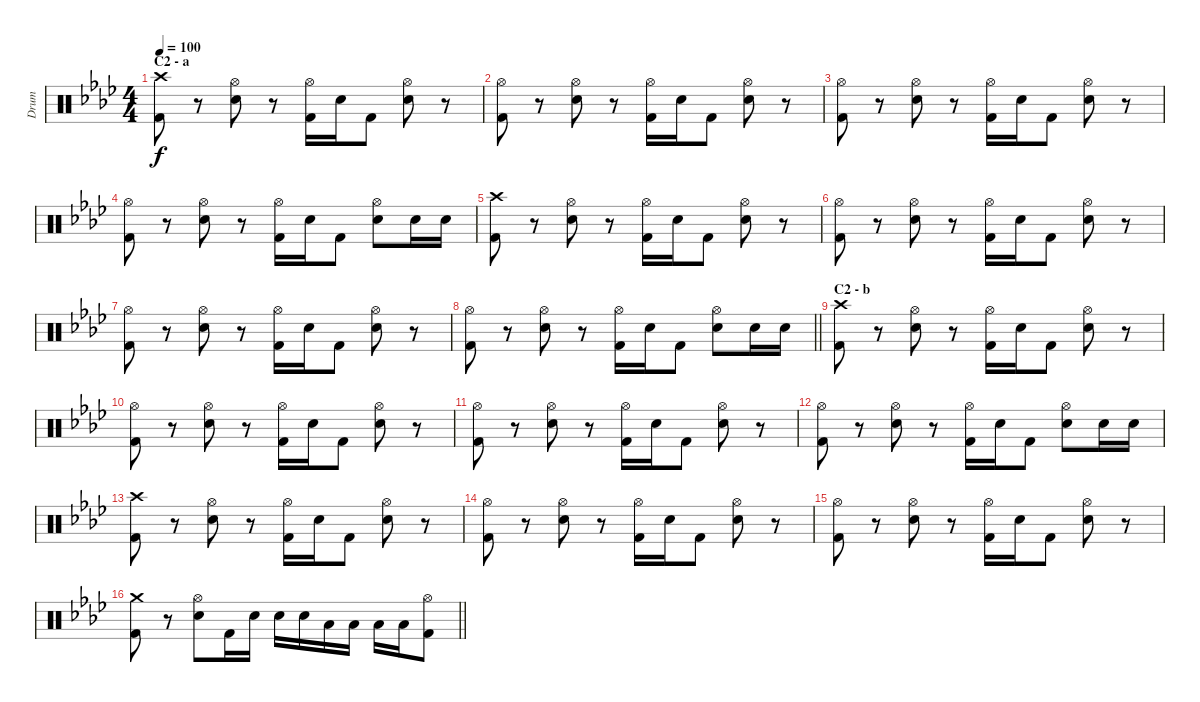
\track ("Drum" "Drum") {instrument percussion}
\staff {score}
\articulation defaults
\ts (4 4)
\section ("" "C2 - a")
\tempo 100
\clef neutral
\ks ab
("Crash high (hit)" "Kick (hit) 2").8{dy f} r.8 ("Hi-Hat (open)" "Snare (hit) 2").8 r.8 ("Hi-Hat (open)" "Kick (hit) 2").16 "Snare (hit) 2".16 "Kick (hit) 2".8 ("Hi-Hat (open)" "Snare (hit) 2").8 r.8 |
("Hi-Hat (open)" "Kick (hit) 2").8 r.8 ("Hi-Hat (open)" "Snare (hit) 2").8 r.8 ("Hi-Hat (open)" "Kick (hit) 2").16 "Snare (hit) 2".16 "Kick (hit) 2".8 ("Hi-Hat (open)" "Snare (hit) 2").8 r.8 |
("Hi-Hat (open)" "Kick (hit) 2").8 r.8 ("Hi-Hat (open)" "Snare (hit) 2").8 r.8 ("Hi-Hat (open)" "Kick (hit) 2").16 "Snare (hit) 2".16 "Kick (hit) 2".8 ("Hi-Hat (open)" "Snare (hit) 2").8 r.8 |
("Hi-Hat (open)" "Kick (hit) 2").8 r.8 ("Hi-Hat (open)" "Snare (hit) 2").8 r.8 ("Hi-Hat (open)" "Kick (hit) 2").16 "Snare (hit) 2".16 "Kick (hit) 2".8 ("Hi-Hat (open)" "Snare (hit) 2").8 "Snare (hit) 2".16 "Snare (hit) 2".16 |
("Crash high (hit)" "Kick (hit) 2").8 r.8 ("Hi-Hat (open)" "Snare (hit) 2").8 r.8 ("Hi-Hat (open)" "Kick (hit) 2").16 "Snare (hit) 2".16 "Kick (hit) 2".8 ("Hi-Hat (open)" "Snare (hit) 2").8 r.8 |
("Hi-Hat (open)" "Kick (hit) 2").8 r.8 ("Hi-Hat (open)" "Snare (hit) 2").8 r.8 ("Hi-Hat (open)" "Kick (hit) 2").16 "Snare (hit) 2".16 "Kick (hit) 2".8 ("Hi-Hat (open)" "Snare (hit) 2").8 r.8 |
("Hi-Hat (open)" "Kick (hit) 2").8 r.8 ("Hi-Hat (open)" "Snare (hit) 2").8 r.8 ("Hi-Hat (open)" "Kick (hit) 2").16 "Snare (hit) 2".16 "Kick (hit) 2".8 ("Hi-Hat (open)" "Snare (hit) 2").8 r.8 |
\barLineRight lightlight
("Hi-Hat (open)" "Kick (hit) 2").8 r.8 ("Hi-Hat (open)" "Snare (hit) 2").8 r.8 ("Hi-Hat (open)" "Kick (hit) 2").16 "Snare (hit) 2".16 "Kick (hit) 2".8 ("Hi-Hat (open)" "Snare (hit) 2").8 "Snare (hit) 2".16 "Snare (hit) 2".16 |
\section ("" "C2 - b")
("Crash high (hit)" "Kick (hit) 2").8 r.8 ("Hi-Hat (open)" "Snare (hit) 2").8 r.8 ("Hi-Hat (open)" "Kick (hit) 2").16 "Snare (hit) 2".16 "Kick (hit) 2".8 ("Hi-Hat (open)" "Snare (hit) 2").8 r.8 |
("Hi-Hat (open)" "Kick (hit) 2").8 r.8 ("Hi-Hat (open)" "Snare (hit) 2").8 r.8 ("Hi-Hat (open)" "Kick (hit) 2").16 "Snare (hit) 2".16 "Kick (hit) 2".8 ("Hi-Hat (open)" "Snare (hit) 2").8 r.8 |
("Hi-Hat (open)" "Kick (hit) 2").8 r.8 ("Hi-Hat (open)" "Snare (hit) 2").8 r.8 ("Hi-Hat (open)" "Kick (hit) 2").16 "Snare (hit) 2".16 "Kick (hit) 2".8 ("Hi-Hat (open)" "Snare (hit) 2").8 r.8 |
("Hi-Hat (open)" "Kick (hit) 2").8 r.8 ("Hi-Hat (open)" "Snare (hit) 2").8 r.8 ("Hi-Hat (open)" "Kick (hit) 2").16 "Snare (hit) 2".16 "Kick (hit) 2".8 ("Hi-Hat (open)" "Snare (hit) 2").8 "Snare (hit) 2".16 "Snare (hit) 2".16 |
("Crash high (hit)" "Kick (hit) 2").8 r.8 ("Hi-Hat (open)" "Snare (hit) 2").8 r.8 ("Hi-Hat (open)" "Kick (hit) 2").16 "Snare (hit) 2".16 "Kick (hit) 2".8 ("Hi-Hat (open)" "Snare (hit) 2").8 r.8 |
("Hi-Hat (open)" "Kick (hit) 2").8 r.8 ("Hi-Hat (open)" "Snare (hit) 2").8 r.8 ("Hi-Hat (open)" "Kick (hit) 2").16 "Snare (hit) 2".16 "Kick (hit) 2".8 ("Hi-Hat (open)" "Snare (hit) 2").8 r.8 |
("Hi-Hat (open)" "Kick (hit) 2").8 r.8 ("Hi-Hat (open)" "Snare (hit) 2").8 r.8 ("Hi-Hat (open)" "Kick (hit) 2").16 "Snare (hit) 2".16 "Kick (hit) 2".8 ("Hi-Hat (open)" "Snare (hit) 2").8 r.8 |
\barLineRight lightlight
("Crash medium (hit)" "Kick (hit) 2").8 r.8 ("Hi-Hat (open)" "Snare (hit) 2").8 "Kick (hit) 2".16 "Snare (hit) 2".16 "Snare (hit) 2".16 "Snare (hit) 2".16 "Low Tom (hit)".16 "Low Tom (hit)".16 "Low Floor Tom (hit)".16 "Low Floor Tom (hit)".16 ("Hi-Hat (open)" "Kick (hit) 2").8
